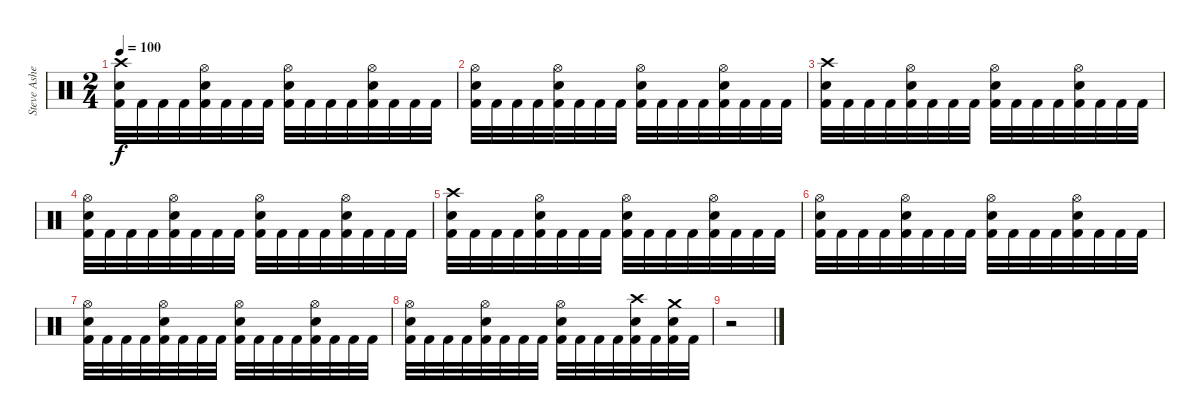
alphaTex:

\track ("Steve Asheim" "Steve Ashe") {instrument percussion}
\staff {score}
\articulation defaults
\ts (2 4)
\tempo 100
\clef neutral
\ks c
("Crash high (hit)" "Electric Snare (hit)" "Kick (hit) 2").32{dy f} "Kick (hit) 2".32 "Kick (hit) 2".32 "Kick (hit) 2".32 ("Hi-Hat (open)" "Electric Snare (hit)" "Kick (hit) 2").32 "Kick (hit) 2".32 "Kick (hit) 2".32 "Kick (hit) 2".32 ("Hi-Hat (open)" "Electric Snare (hit)" "Kick (hit) 2").32 "Kick (hit) 2".32 "Kick (hit) 2".32 "Kick (hit) 2".32 ("Hi-Hat (open)" "Electric Snare (hit)" "Kick (hit) 2").32 "Kick (hit) 2".32 "Kick (hit) 2".32 "Kick (hit) 2".32 |
("Hi-Hat (open)" "Electric Snare (hit)" "Kick (hit) 2").32 "Kick (hit) 2".32 "Kick (hit) 2".32 "Kick (hit) 2".32 ("Hi-Hat (open)" "Electric Snare (hit)" "Kick (hit) 2").32 "Kick (hit) 2".32 "Kick (hit) 2".32 "Kick (hit) 2".32 ("Hi-Hat (open)" "Electric Snare (hit)" "Kick (hit) 2").32 "Kick (hit) 2".32 "Kick (hit) 2".32 "Kick (hit) 2".32 ("Hi-Hat (open)" "Electric Snare (hit)" "Kick (hit) 2").32 "Kick (hit) 2".32 "Kick (hit) 2".32 "Kick (hit) 2".32 |
("Crash high (hit)" "Electric Snare (hit)" "Kick (hit) 2").32 "Kick (hit) 2".32 "Kick (hit) 2".32 "Kick (hit) 2".32 ("Hi-Hat (open)" "Electric Snare (hit)" "Kick (hit) 2").32 "Kick (hit) 2".32 "Kick (hit) 2".32 "Kick (hit) 2".32 ("Hi-Hat (open)" "Electric Snare (hit)" "Kick (hit) 2").32 "Kick (hit) 2".32 "Kick (hit) 2".32 "Kick (hit) 2".32 ("Hi-Hat (open)" "Electric Snare (hit)" "Kick (hit) 2").32 "Kick (hit) 2".32 "Kick (hit) 2".32 "Kick (hit) 2".32 |
("Hi-Hat (open)" "Electric Snare (hit)" "Kick (hit) 2").32 "Kick (hit) 2".32 "Kick (hit) 2".32 "Kick (hit) 2".32 ("Hi-Hat (open)" "Electric Snare (hit)" "Kick (hit) 2").32 "Kick (hit) 2".32 "Kick (hit) 2".32 "Kick (hit) 2".32 ("Hi-Hat (open)" "Electric Snare (hit)" "Kick (hit) 2").32 "Kick (hit) 2".32 "Kick (hit) 2".32 "Kick (hit) 2".32 ("Hi-Hat (open)" "Electric Snare (hit)" "Kick (hit) 2").32 "Kick (hit) 2".32 "Kick (hit) 2".32 "Kick (hit) 2".32 |
("Crash high (hit)" "Electric Snare (hit)" "Kick (hit) 2").32 "Kick (hit) 2".32 "Kick (hit) 2".32 "Kick (hit) 2".32 ("Hi-Hat (open)" "Electric Snare (hit)" "Kick (hit) 2").32 "Kick (hit) 2".32 "Kick (hit) 2".32 "Kick (hit) 2".32 ("Hi-Hat (open)" "Electric Snare (hit)" "Kick (hit) 2").32 "Kick (hit) 2".32 "Kick (hit) 2".32 "Kick (hit) 2".32 ("Hi-Hat (open)" "Electric Snare (hit)" "Kick (hit) 2").32 "Kick (hit) 2".32 "Kick (hit) 2".32 "Kick (hit) 2".32 |
("Hi-Hat (open)" "Electric Snare (hit)" "Kick (hit) 2").32 "Kick (hit) 2".32 "Kick (hit) 2".32 "Kick (hit) 2".32 ("Hi-Hat (open)" "Electric Snare (hit)" "Kick (hit) 2").32 "Kick (hit) 2".32 "Kick (hit) 2".32 "Kick (hit) 2".32 ("Hi-Hat (open)" "Electric Snare (hit)" "Kick (hit) 2").32 "Kick (hit) 2".32 "Kick (hit) 2".32 "Kick (hit) 2".32 ("Hi-Hat (open)" "Electric Snare (hit)" "Kick (hit) 2").32 "Kick (hit) 2".32 "Kick (hit) 2".32 "Kick (hit) 2".32 |
("Hi-Hat (open)" "Electric Snare (hit)" "Kick (hit) 2").32 "Kick (hit) 2".32 "Kick (hit) 2".32 "Kick (hit) 2".32 ("Hi-Hat (open)" "Electric Snare (hit)" "Kick (hit) 2").32 "Kick (hit) 2".32 "Kick (hit) 2".32 "Kick (hit) 2".32 ("Hi-Hat (open)" "Electric Snare (hit)" "Kick (hit) 2").32 "Kick (hit) 2".32 "Kick (hit) 2".32 "Kick (hit) 2".32 ("Hi-Hat (open)" "Electric Snare (hit)" "Kick (hit) 2").32 "Kick (hit) 2".32 "Kick (hit) 2".32 "Kick (hit) 2".32 |
("Hi-Hat (open)" "Electric Snare (hit)" "Kick (hit) 2").32 "Kick (hit) 2".32 "Kick (hit) 2".32 "Kick (hit) 2".32 ("Hi-Hat (open)" "Electric Snare (hit)" "Kick (hit) 2").32 "Kick (hit) 2".32 "Kick (hit) 2".32 "Kick (hit) 2".32 ("Hi-Hat (open)" "Electric Snare (hit)" "Kick (hit) 2").32 "Kick (hit) 2".32 "Kick (hit) 2".32 "Kick (hit) 2".32 ("Crash high (hit)" "Electric Snare (hit)" "Kick (hit) 2").32 "Kick (hit) 2".32 ("Crash medium (hit)" "Electric Snare (hit)" "Kick (hit) 2").32 "Kick (hit) 2".32 |
r.2
